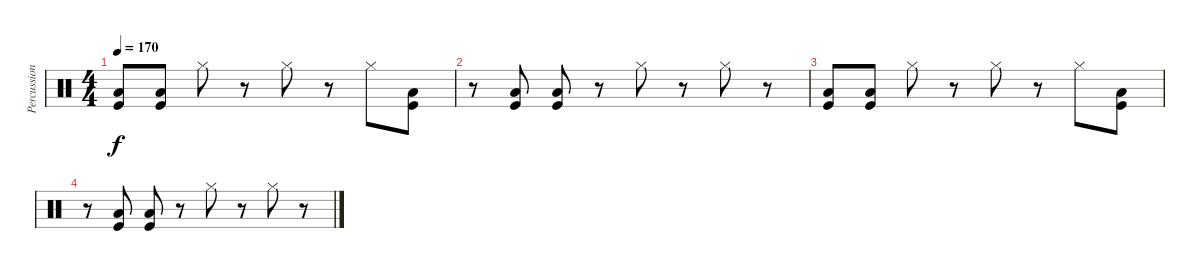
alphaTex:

\track ("Percussion" "Percussion") {instrument percussion}
\staff {score}
\articulation defaults
\ts (4 4)
\tempo 170
\clef neutral
\ks c
("Low Tom (hit)" "Kick (hit)").8{dy f} ("Low Tom (hit)" "Kick (hit)").8 "Hi-Hat (closed)".8 r.8 "Hi-Hat (closed)".8 r.8 "Hi-Hat (closed)".8 ("Low Tom (hit)" "Kick (hit)").8 |
r.8 ("Low Tom (hit)" "Kick (hit)").8 ("Low Tom (hit)" "Kick (hit)").8 r.8 "Hi-Hat (closed)".8 r.8 "Hi-Hat (closed)".8 r.8 |
("Low Tom (hit)" "Kick (hit)").8 ("Low Tom (hit)" "Kick (hit)").8 "Hi-Hat (closed)".8 r.8 "Hi-Hat (closed)".8 r.8 "Hi-Hat (closed)".8 ("Low Tom (hit)" "Kick (hit)").8 |
r.8 ("Low Tom (hit)" "Kick (hit)").8 ("Low Tom (hit)" "Kick (hit)").8 r.8 "Hi-Hat (closed)".8 r.8 "Hi-Hat (closed)".8 r.8
